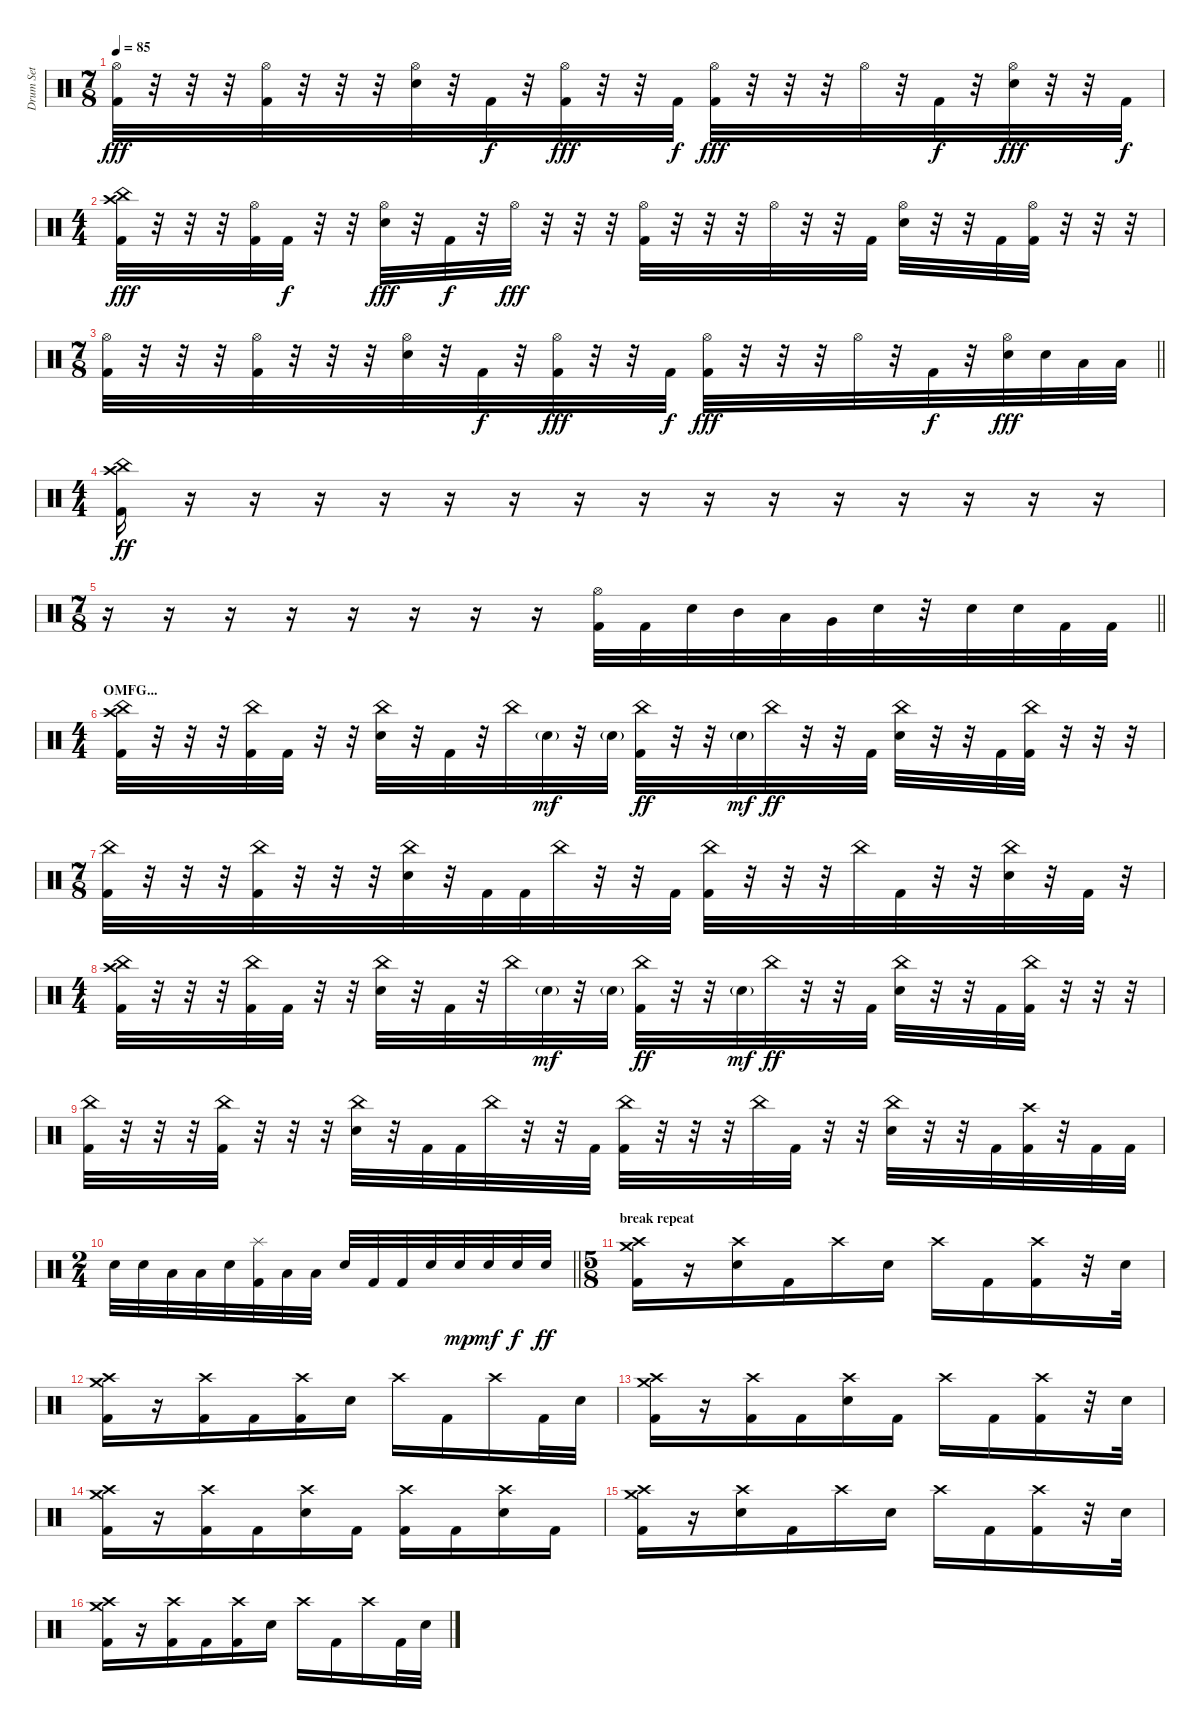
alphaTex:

\track ("Drum Set" "Drum Set") {instrument percussion}
\staff {score}
\articulation defaults
\ts (7 8)
\tempo 85
\clef neutral
\ks c
("Hi-Hat (open)" "Kick (hit) 2").32{dy fff} r.32 r.32 r.32 ("Hi-Hat (open)" "Kick (hit) 2").32 r.32 r.32 r.32 ("Hi-Hat (open)" "Electric Snare (hit)").32 r.32 "Kick (hit) 2".32{dy f} r.32 ("Hi-Hat (open)" "Kick (hit) 2").32{dy fff} r.32 r.32 "Kick (hit) 2".32{dy f} ("Hi-Hat (open)" "Kick (hit) 2").32{dy fff} r.32 r.32 r.32 "Hi-Hat (open)".32 r.32 "Kick (hit) 2".32{dy f} r.32 ("Hi-Hat (open)" "Electric Snare (hit)").32{dy fff} r.32 r.32 "Kick (hit) 2".32{dy f} |
\ts (4 4)
("Crash high (hit)" "China (hit)" "Kick (hit) 2").32{dy fff} r.32 r.32 r.32 ("Hi-Hat (open)" "Kick (hit) 2").32 "Kick (hit) 2".32{dy f} r.32 r.32 ("Hi-Hat (open)" "Electric Snare (hit)").32{dy fff} r.32 "Kick (hit) 2".32{dy f} r.32 "Hi-Hat (open)".32{dy fff} r.32 r.32 r.32 ("Hi-Hat (open)" "Kick (hit) 2").32 r.32 r.32 r.32 "Hi-Hat (open)".32 r.32 r.32 "Kick (hit) 2".32 ("Hi-Hat (open)" "Electric Snare (hit)").32 r.32 r.32 "Kick (hit) 2".32 ("Hi-Hat (open)" "Kick (hit) 2").32 r.32 r.32 r.32 |
\ts (7 8)
\barLineRight lightlight
("Hi-Hat (open)" "Kick (hit) 2").32 r.32 r.32 r.32 ("Hi-Hat (open)" "Kick (hit) 2").32 r.32 r.32 r.32 ("Hi-Hat (open)" "Electric Snare (hit)").32 r.32 "Kick (hit) 2".32{dy f} r.32 ("Hi-Hat (open)" "Kick (hit) 2").32{dy fff} r.32 r.32 "Kick (hit) 2".32{dy f} ("Hi-Hat (open)" "Kick (hit) 2").32{dy fff} r.32 r.32 r.32 "Hi-Hat (open)".32 r.32 "Kick (hit) 2".32{dy f} r.32 ("Hi-Hat (open)" "Electric Snare (hit)").32{dy fff} "Electric Snare (hit)".32 "Low Tom (hit)".32 "Low Tom (hit)".32 |
\ts (4 4)
("Crash high (hit)" "China (hit)" "Kick (hit) 2").16{dy ff} r.16 r.16 r.16 r.16 r.16 r.16 r.16 r.16 r.16 r.16 r.16 r.16 r.16 r.16 r.16 |
\ts (7 8)
\barLineRight lightlight
r.16 r.16 r.16 r.16 r.16 r.16 r.16 r.16 ("Hi-Hat (open)" "Kick (hit) 2").32 "Kick (hit) 2".32 "Electric Snare (hit)".32 "Mid Tom (hit)".32 "Low Tom (hit)".32 "Very Low Tom (hit)".32 "Electric Snare (hit)".32 r.32 "Electric Snare (hit)".32 "Electric Snare (hit)".32 "Kick (hit) 2".32 "Kick (hit) 2".32 |
\ts (4 4)
\section ("" "OMFG...")
("Crash high (hit)" "China (hit)" "Kick (hit) 2").32 r.32 r.32 r.32 ("China (hit)" "Kick (hit) 2").32 "Kick (hit) 2".32 r.32 r.32 ("China (hit)" "Electric Snare (hit)").32 r.32 "Kick (hit) 2".32 r.32 "China (hit)".32 "Electric Snare (hit)"{g}.32{dy mf} r.32 "Electric Snare (hit)"{g}.32 ("China (hit)" "Kick (hit) 2").32{dy ff} r.32 r.32 "Electric Snare (hit)"{g}.32{dy mf} "China (hit)".32{dy ff} r.32 r.32 "Kick (hit) 2".32 ("China (hit)" "Electric Snare (hit)").32 r.32 r.32 "Kick (hit) 2".32 ("China (hit)" "Kick (hit) 2").32 r.32 r.32 r.32 |
\ts (7 8)
("China (hit)" "Kick (hit) 2").32 r.32 r.32 r.32 ("China (hit)" "Kick (hit) 2").32 r.32 r.32 r.32 ("China (hit)" "Electric Snare (hit)").32 r.32 "Kick (hit) 2".32 "Kick (hit) 2".32 "China (hit)".32 r.32 r.32 "Kick (hit) 2".32 ("China (hit)" "Kick (hit) 2").32 r.32 r.32 r.32 "China (hit)".32 "Kick (hit) 2".32 r.32 r.32 ("China (hit)" "Electric Snare (hit)").32 r.32 "Kick (hit) 2".32 r.32 |
\ts (4 4)
("Crash high (hit)" "China (hit)" "Kick (hit) 2").32 r.32 r.32 r.32 ("China (hit)" "Kick (hit) 2").32 "Kick (hit) 2".32 r.32 r.32 ("China (hit)" "Electric Snare (hit)").32 r.32 "Kick (hit) 2".32 r.32 "China (hit)".32 "Electric Snare (hit)"{g}.32{dy mf} r.32 "Electric Snare (hit)"{g}.32 ("China (hit)" "Kick (hit) 2").32{dy ff} r.32 r.32 "Electric Snare (hit)"{g}.32{dy mf} "China (hit)".32{dy ff} r.32 r.32 "Kick (hit) 2".32 ("China (hit)" "Electric Snare (hit)").32 r.32 r.32 "Kick (hit) 2".32 ("China (hit)" "Kick (hit) 2").32 r.32 r.32 r.32 |
("China (hit)" "Kick (hit) 2").32 r.32 r.32 r.32 ("China (hit)" "Kick (hit) 2").32 r.32 r.32 r.32 ("China (hit)" "Electric Snare (hit)").32 r.32 "Kick (hit) 2".32 "Kick (hit) 2".32 "China (hit)".32 r.32 r.32 "Kick (hit) 2".32 ("China (hit)" "Kick (hit) 2").32 r.32 r.32 r.32 "China (hit)".32 "Kick (hit) 2".32 r.32 r.32 ("China (hit)" "Electric Snare (hit)").32 r.32 r.32 "Kick (hit) 2".32 ("Crash high (hit)" "Kick (hit) 2").32 r.32 "Kick (hit) 2".32 "Kick (hit) 2".32 |
\ts (2 4)
\barLineRight lightlight "Electric Snare (hit)".32 "Electric Snare (hit)".32 "Low Tom (hit)".32 "Low Tom (hit)".32 "Electric Snare (hit)".32
("Splash (hit)" "Kick (hit) 2").32 "Low Tom (hit)".32 "Low Tom (hit)".32 "Electric Snare (hit)".32 "Kick (hit) 2".32 "Kick (hit) 2".32 "Electric Snare (hit)".32 "Electric Snare (hit)".32{dy mp} "Electric Snare (hit)".32{dy mf} "Electric Snare (hit)".32{dy f} "Electric Snare (hit)".32{dy ff} |
\ts (5 8)
\section ("" "break repeat")
("Crash high (hit)" "Crash medium (hit)" "Kick (hit) 2").16 r.16 ("Crash high (hit)" "Electric Snare (hit)").16 "Kick (hit) 2".16 "Crash high (hit)".16 "Electric Snare (hit)".16 "Crash high (hit)".16 "Kick (hit) 2".16 ("Crash high (hit)" "Kick (hit) 2").16 r.32 "Electric Snare (hit)".32 |
("Crash high (hit)" "Crash medium (hit)" "Kick (hit) 2").16 r.16 ("Crash high (hit)" "Kick (hit) 2").16 "Kick (hit) 2".16 ("Crash high (hit)" "Kick (hit) 2").16 "Electric Snare (hit)".16 "Crash high (hit)".16 "Kick (hit) 2".16 "Crash high (hit)".16 "Kick (hit) 2".32 "Electric Snare (hit)".32 |
("Crash high (hit)" "Crash medium (hit)" "Kick (hit) 2").16 r.16 ("Crash high (hit)" "Kick (hit) 2").16 "Kick (hit) 2".16 ("Crash high (hit)" "Electric Snare (hit)").16 "Kick (hit) 2".16 "Crash high (hit)".16 "Kick (hit) 2".16 ("Crash high (hit)" "Kick (hit) 2").16 r.32 "Electric Snare (hit)".32 |
("Crash high (hit)" "Crash medium (hit)" "Kick (hit) 2").16 r.16 ("Crash high (hit)" "Kick (hit) 2").16 "Kick (hit) 2".16 ("Crash high (hit)" "Electric Snare (hit)").16 "Kick (hit) 2".16 ("Crash high (hit)" "Kick (hit) 2").16 "Kick (hit) 2".16 ("Crash high (hit)" "Electric Snare (hit)").16 "Kick (hit) 2".16 |
("Crash high (hit)" "Crash medium (hit)" "Kick (hit) 2").16 r.16 ("Crash high (hit)" "Electric Snare (hit)").16 "Kick (hit) 2".16 "Crash high (hit)".16 "Electric Snare (hit)".16 "Crash high (hit)".16 "Kick (hit) 2".16 ("Crash high (hit)" "Kick (hit) 2").16 r.32 "Electric Snare (hit)".32 |
("Crash high (hit)" "Crash medium (hit)" "Kick (hit) 2").16 r.16 ("Crash high (hit)" "Kick (hit) 2").16 "Kick (hit) 2".16 ("Crash high (hit)" "Kick (hit) 2").16 "Electric Snare (hit)".16 "Crash high (hit)".16 "Kick (hit) 2".16 "Crash high (hit)".16 "Kick (hit) 2".32 "Electric Snare (hit)".32
